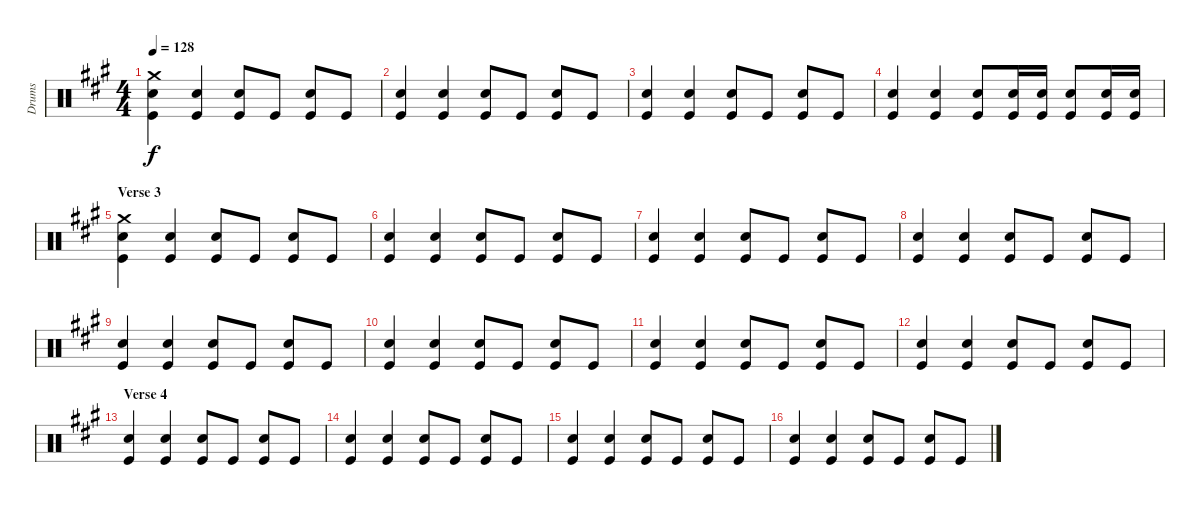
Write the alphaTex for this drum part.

\defaultSystemsLayout 4
\bracketExtendMode groupsimilarinstruments
\otherSystemsTrackNameOrientation horizontal
\track ("Drumkit" "Drums") {instrument percussion}
\staff {score}
\articulation defaults
\ts (4 4)
\tempo 128
\clef neutral
\ks a
("Crash medium (hit)" "Snare (hit) 2" "Kick (hit)").4{dy f} ("Snare (hit) 2" "Kick (hit)").4 ("Snare (hit) 2" "Kick (hit)").8 "Kick (hit)".8 ("Snare (hit) 2" "Kick (hit)").8 "Kick (hit)".8 |
("Snare (hit) 2" "Kick (hit)").4 ("Snare (hit) 2" "Kick (hit)").4 ("Snare (hit) 2" "Kick (hit)").8 "Kick (hit)".8 ("Snare (hit) 2" "Kick (hit)").8 "Kick (hit)".8 |
("Snare (hit) 2" "Kick (hit)").4 ("Snare (hit) 2" "Kick (hit)").4 ("Snare (hit) 2" "Kick (hit)").8 "Kick (hit)".8 ("Snare (hit) 2" "Kick (hit)").8 "Kick (hit)".8 |
("Snare (hit) 2" "Kick (hit)").4 ("Snare (hit) 2" "Kick (hit)").4 ("Snare (hit) 2" "Kick (hit)").8 ("Snare (hit) 2" "Kick (hit)").16 ("Snare (hit) 2" "Kick (hit)").16 ("Snare (hit) 2" "Kick (hit)").8 ("Snare (hit) 2" "Kick (hit)").16 ("Snare (hit) 2" "Kick (hit)").16 |
\section ("" "Verse 3")
("Crash medium (hit)" "Snare (hit) 2" "Kick (hit)").4 ("Snare (hit) 2" "Kick (hit)").4 ("Snare (hit) 2" "Kick (hit)").8 "Kick (hit)".8 ("Snare (hit) 2" "Kick (hit)").8 "Kick (hit)".8 |
("Snare (hit) 2" "Kick (hit)").4 ("Snare (hit) 2" "Kick (hit)").4 ("Snare (hit) 2" "Kick (hit)").8 "Kick (hit)".8 ("Snare (hit) 2" "Kick (hit)").8 "Kick (hit)".8 |
("Snare (hit) 2" "Kick (hit)").4 ("Snare (hit) 2" "Kick (hit)").4 ("Snare (hit) 2" "Kick (hit)").8 "Kick (hit)".8 ("Snare (hit) 2" "Kick (hit)").8 "Kick (hit)".8 |
("Snare (hit) 2" "Kick (hit)").4 ("Snare (hit) 2" "Kick (hit)").4 ("Snare (hit) 2" "Kick (hit)").8 "Kick (hit)".8 ("Snare (hit) 2" "Kick (hit)").8 "Kick (hit)".8 |
("Snare (hit) 2" "Kick (hit)").4 ("Snare (hit) 2" "Kick (hit)").4 ("Snare (hit) 2" "Kick (hit)").8 "Kick (hit)".8 ("Snare (hit) 2" "Kick (hit)").8 "Kick (hit)".8 |
("Snare (hit) 2" "Kick (hit)").4 ("Snare (hit) 2" "Kick (hit)").4 ("Snare (hit) 2" "Kick (hit)").8 "Kick (hit)".8 ("Snare (hit) 2" "Kick (hit)").8 "Kick (hit)".8 |
("Snare (hit) 2" "Kick (hit)").4 ("Snare (hit) 2" "Kick (hit)").4 ("Snare (hit) 2" "Kick (hit)").8 "Kick (hit)".8 ("Snare (hit) 2" "Kick (hit)").8 "Kick (hit)".8 |
("Snare (hit) 2" "Kick (hit)").4 ("Snare (hit) 2" "Kick (hit)").4 ("Snare (hit) 2" "Kick (hit)").8 "Kick (hit)".8 ("Snare (hit) 2" "Kick (hit)").8 "Kick (hit)".8 |
\section ("" "Verse 4")
("Snare (hit) 2" "Kick (hit)").4 ("Snare (hit) 2" "Kick (hit)").4 ("Snare (hit) 2" "Kick (hit)").8 "Kick (hit)".8 ("Snare (hit) 2" "Kick (hit)").8 "Kick (hit)".8 |
("Snare (hit) 2" "Kick (hit)").4 ("Snare (hit) 2" "Kick (hit)").4 ("Snare (hit) 2" "Kick (hit)").8 "Kick (hit)".8 ("Snare (hit) 2" "Kick (hit)").8 "Kick (hit)".8 |
("Snare (hit) 2" "Kick (hit)").4 ("Snare (hit) 2" "Kick (hit)").4 ("Snare (hit) 2" "Kick (hit)").8 "Kick (hit)".8 ("Snare (hit) 2" "Kick (hit)").8 "Kick (hit)".8 |
("Snare (hit) 2" "Kick (hit)").4 ("Snare (hit) 2" "Kick (hit)").4 ("Snare (hit) 2" "Kick (hit)").8 "Kick (hit)".8 ("Snare (hit) 2" "Kick (hit)").8 "Kick (hit)".8
